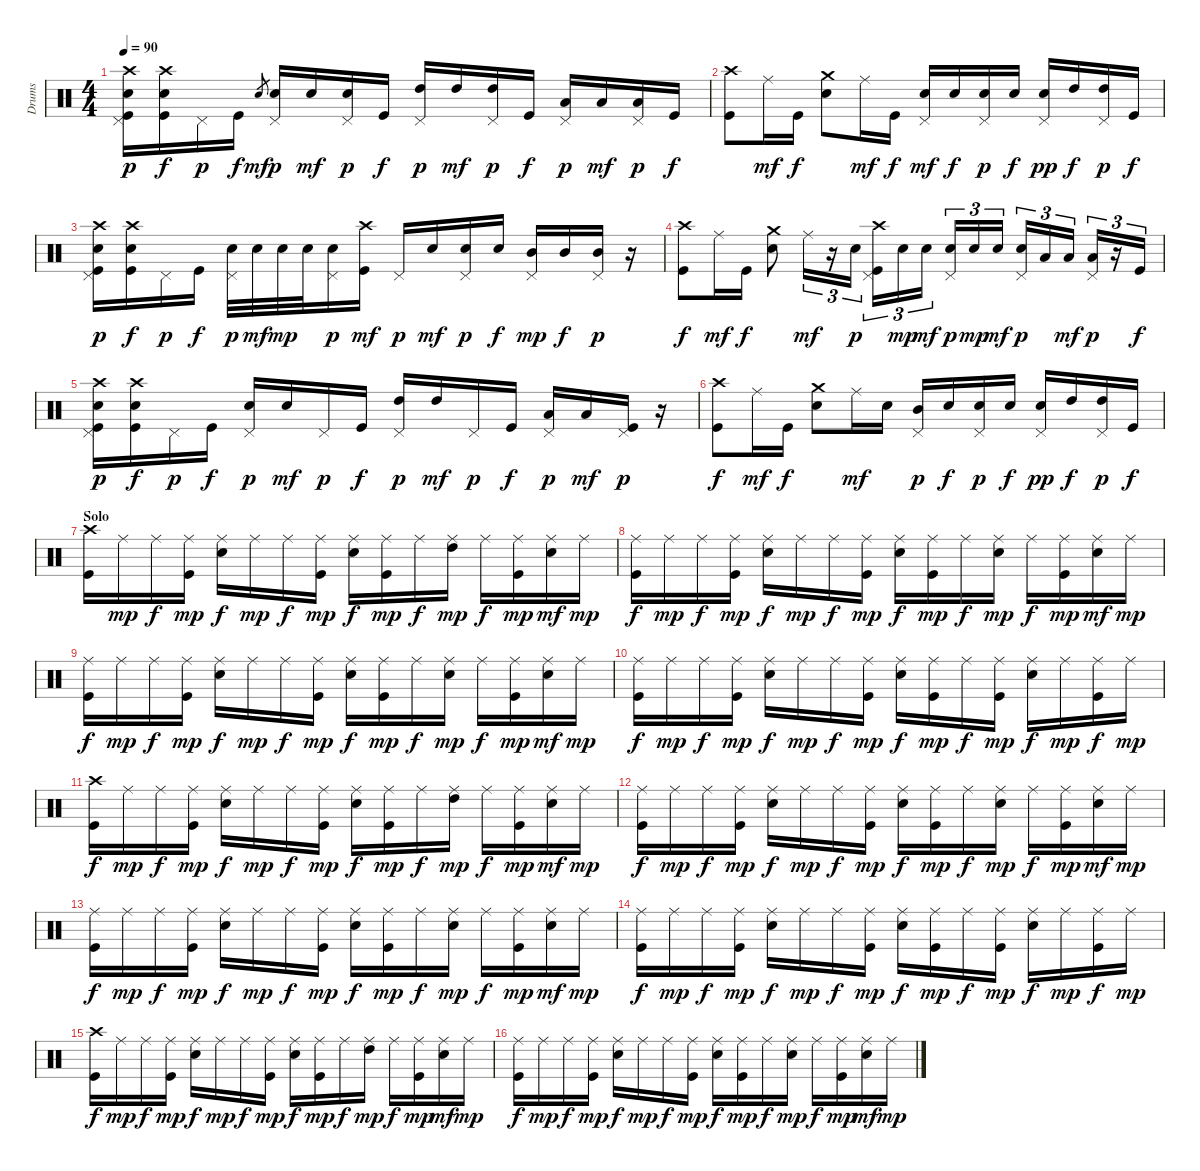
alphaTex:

\track ("Drums" "Drums") {instrument percussion}
\staff {score}
\articulation defaults
\ts (4 4)
\tempo 90
\clef neutral
\ks c
("Crash high (hit)" "Pedal Hi-Hat (hit)" "Snare (hit) 2" "Kick (hit)").16{dy p} ("Crash high (hit)" "Snare (hit) 2" "Kick (hit)").16{dy f} "Pedal Hi-Hat (hit)".16{dy p} "Kick (hit)".16{dy f} "Snare (hit) 2".8{gr dy mf} ("Pedal Hi-Hat (hit)" "Snare (hit) 2").16{dy p} "Snare (hit) 2".16{dy mf} ("Pedal Hi-Hat (hit)" "Snare (hit) 2").16{dy p} "Kick (hit)".16{dy f} ("Pedal Hi-Hat (hit)" "High Tom (hit)").16{dy p} "High Tom (hit)".16{dy mf} ("Pedal Hi-Hat (hit)" "High Tom (hit)").16{dy p} "Kick (hit)".16{dy f} ("Pedal Hi-Hat (hit)" "Low Tom (hit)").16{dy p} "Low Tom (hit)".16{dy mf} ("Pedal Hi-Hat (hit)" "Low Tom (hit)").16{dy p} "Kick (hit)".16{dy f} |
("Crash high (hit)" "Kick (hit)").8 "Ride (middle)".16{dy mf} "Kick (hit)".16{dy f} ("Crash medium (hit)" "Snare (hit) 2").8 "Ride (middle)".16{dy mf} "Kick (hit)".16{dy f} ("Pedal Hi-Hat (hit)" "Snare (hit) 2").16{dy mf} "Snare (hit) 2".16{dy f} ("Pedal Hi-Hat (hit)" "Snare (hit) 2").16{dy p} "Snare (hit) 2".16{dy f} ("Pedal Hi-Hat (hit)" "Snare (hit) 2").16{dy pp} "High Tom (hit)".16{dy f} ("Pedal Hi-Hat (hit)" "High Tom (hit)").16{dy p} "Kick (hit)".16{dy f} |
("Crash high (hit)" "Pedal Hi-Hat (hit)" "Snare (hit) 2" "Kick (hit)").16{dy p} ("Crash high (hit)" "Snare (hit) 2" "Kick (hit)").16{dy f} "Pedal Hi-Hat (hit)".16{dy p} "Kick (hit)".16{dy f} ("Pedal Hi-Hat (hit)" "Snare (hit) 2").32{dy p} "Snare (hit) 2".32{dy mf} "Snare (hit) 2".32{dy mp} "Snare (hit) 2".32 ("Pedal Hi-Hat (hit)" "Snare (hit) 2").16{dy p} ("Crash high (hit)" "Kick (hit)").16{dy mf} "Pedal Hi-Hat (hit)".16{dy p} "Snare (hit) 2".16{dy mf} ("Pedal Hi-Hat (hit)" "Snare (hit) 2").16{dy p} "Snare (hit) 2".16{dy f} ("Pedal Hi-Hat (hit)" "Mid Tom (hit)").16{dy mp} "Mid Tom (hit)".16{dy f} ("Pedal Hi-Hat (hit)" "Mid Tom (hit)").16{dy p} r.16 |
("Crash high (hit)" "Kick (hit)").8{dy f} "Ride (middle)".16{dy mf} "Kick (hit)".16{dy f} ("Crash medium (hit)" "Snare (hit) 2").8 "Ride (middle)".16{tu (3 2) dy mf} r.16{tu (3 2)} "Snare (hit) 2".16{tu (3 2) dy p} ("Crash high (hit)" "Pedal Hi-Hat (hit)" "Kick (hit)").16{tu (3 2)} "Snare (hit) 2".16{tu (3 2) dy mp} "Snare (hit) 2".16{tu (3 2) dy mf} ("Pedal Hi-Hat (hit)" "Snare (hit) 2").16{tu (3 2) dy p} "Snare (hit) 2".16{tu (3 2) dy mp} "Snare (hit) 2".16{tu (3 2) dy mf} ("Pedal Hi-Hat (hit)" "Snare (hit) 2").16{tu (3 2) dy p} "Low Tom (hit)".16{tu (3 2)} "Low Tom (hit)".16{tu (3 2) dy mf} ("Pedal Hi-Hat (hit)" "Low Tom (hit)").16{tu (3 2) dy p} r.16{tu (3 2)} "Kick (hit)".16{tu (3 2) dy f} |
("Crash high (hit)" "Pedal Hi-Hat (hit)" "Snare (hit) 2" "Kick (hit)").16{dy p} ("Crash high (hit)" "Snare (hit) 2" "Kick (hit)").16{dy f} "Pedal Hi-Hat (hit)".16{dy p} "Kick (hit)".16{dy f} ("Pedal Hi-Hat (hit)" "Snare (hit) 2").16{dy p} "Snare (hit) 2".16{dy mf} "Pedal Hi-Hat (hit)".16{dy p} "Kick (hit)".16{dy f} ("Pedal Hi-Hat (hit)" "High Tom (hit)").16{dy p} "High Tom (hit)".16{dy mf} "Pedal Hi-Hat (hit)".16{dy p} "Kick (hit)".16{dy f} ("Pedal Hi-Hat (hit)" "Low Tom (hit)").16{dy p} "Low Tom (hit)".16{dy mf} ("Pedal Hi-Hat (hit)" "Kick (hit)").16{dy p} r.16 |
("Crash high (hit)" "Kick (hit)").8{dy f} "Ride (middle)".16{dy mf} "Kick (hit)".16{dy f} ("Crash medium (hit)" "Snare (hit) 2").8 "Ride (middle)".16{dy mf} "Snare (hit) 2".16 ("Pedal Hi-Hat (hit)" "Mid Tom (hit)").16{dy p} "Snare (hit) 2".16{dy f} ("Pedal Hi-Hat (hit)" "Snare (hit) 2").16{dy p} "Snare (hit) 2".16{dy f} ("Pedal Hi-Hat (hit)" "Snare (hit) 2").16{dy pp} "High Tom (hit)".16{dy f} ("Pedal Hi-Hat (hit)" "High Tom (hit)").16{dy p} "Kick (hit)".16{dy f} |
\section ("" "Solo")
("Crash high (hit)" "Kick (hit)").16 "Ride (middle)".16{dy mp} "Ride (middle)".16{dy f} ("Ride (middle)" "Kick (hit)").16{dy mp} ("Ride (middle)" "Snare (hit) 2").16{dy f} "Ride (middle)".16{dy mp} "Ride (middle)".16{dy f} ("Ride (middle)" "Kick (hit)").16{dy mp} ("Ride (middle)" "Snare (hit) 2").16{dy f} ("Ride (middle)" "Kick (hit)").16{dy mp} "Ride (middle)".16{dy f} ("Ride (middle)" "High Tom (hit)").16{dy mp} "Ride (middle)".16{dy f} ("Ride (middle)" "Kick (hit)").16{dy mp} ("Ride (middle)" "Snare (hit) 2").16{dy mf} "Ride (middle)".16{dy mp} |
("Ride (middle)" "Kick (hit)").16{dy f} "Ride (middle)".16{dy mp} "Ride (middle)".16{dy f} ("Ride (middle)" "Kick (hit)").16{dy mp} ("Ride (middle)" "Snare (hit) 2").16{dy f} "Ride (middle)".16{dy mp} "Ride (middle)".16{dy f} ("Ride (middle)" "Kick (hit)").16{dy mp} ("Ride (middle)" "Snare (hit) 2").16{dy f} ("Ride (middle)" "Kick (hit)").16{dy mp} "Ride (middle)".16{dy f} ("Ride (middle)" "Snare (hit) 2").16{dy mp} "Ride (middle)".16{dy f} ("Ride (middle)" "Kick (hit)").16{dy mp} ("Ride (middle)" "Snare (hit) 2").16{dy mf} "Ride (middle)".16{dy mp} |
("Ride (middle)" "Kick (hit)").16{dy f} "Ride (middle)".16{dy mp} "Ride (middle)".16{dy f} ("Ride (middle)" "Kick (hit)").16{dy mp} ("Ride (middle)" "Snare (hit) 2").16{dy f} "Ride (middle)".16{dy mp} "Ride (middle)".16{dy f} ("Ride (middle)" "Kick (hit)").16{dy mp} ("Ride (middle)" "Snare (hit) 2").16{dy f} ("Ride (middle)" "Kick (hit)").16{dy mp} "Ride (middle)".16{dy f} ("Ride (middle)" "Snare (hit) 2").16{dy mp} "Ride (middle)".16{dy f} ("Ride (middle)" "Kick (hit)").16{dy mp} ("Ride (middle)" "Snare (hit) 2").16{dy mf} "Ride (middle)".16{dy mp} |
("Ride (middle)" "Kick (hit)").16{dy f} "Ride (middle)".16{dy mp} "Ride (middle)".16{dy f} ("Ride (middle)" "Kick (hit)").16{dy mp} ("Ride (middle)" "Snare (hit) 2").16{dy f} "Ride (middle)".16{dy mp} "Ride (middle)".16{dy f} ("Ride (middle)" "Kick (hit)").16{dy mp} ("Ride (middle)" "Snare (hit) 2").16{dy f} ("Ride (middle)" "Kick (hit)").16{dy mp} "Ride (middle)".16{dy f} ("Ride (middle)" "Kick (hit)").16{dy mp} ("Ride (middle)" "Snare (hit) 2").16{dy f} "Ride (middle)".16{dy mp} ("Ride (middle)" "Kick (hit)").16{dy f} "Ride (middle)".16{dy mp} |
("Crash high (hit)" "Kick (hit)").16{dy f} "Ride (middle)".16{dy mp} "Ride (middle)".16{dy f} ("Ride (middle)" "Kick (hit)").16{dy mp} ("Ride (middle)" "Snare (hit) 2").16{dy f} "Ride (middle)".16{dy mp} "Ride (middle)".16{dy f} ("Ride (middle)" "Kick (hit)").16{dy mp} ("Ride (middle)" "Snare (hit) 2").16{dy f} ("Ride (middle)" "Kick (hit)").16{dy mp} "Ride (middle)".16{dy f} ("Ride (middle)" "High Tom (hit)").16{dy mp} "Ride (middle)".16{dy f} ("Ride (middle)" "Kick (hit)").16{dy mp} ("Ride (middle)" "Snare (hit) 2").16{dy mf} "Ride (middle)".16{dy mp} |
("Ride (middle)" "Kick (hit)").16{dy f} "Ride (middle)".16{dy mp} "Ride (middle)".16{dy f} ("Ride (middle)" "Kick (hit)").16{dy mp} ("Ride (middle)" "Snare (hit) 2").16{dy f} "Ride (middle)".16{dy mp} "Ride (middle)".16{dy f} ("Ride (middle)" "Kick (hit)").16{dy mp} ("Ride (middle)" "Snare (hit) 2").16{dy f} ("Ride (middle)" "Kick (hit)").16{dy mp} "Ride (middle)".16{dy f} ("Ride (middle)" "Snare (hit) 2").16{dy mp} "Ride (middle)".16{dy f} ("Ride (middle)" "Kick (hit)").16{dy mp} ("Ride (middle)" "Snare (hit) 2").16{dy mf} "Ride (middle)".16{dy mp} |
("Ride (middle)" "Kick (hit)").16{dy f} "Ride (middle)".16{dy mp} "Ride (middle)".16{dy f} ("Ride (middle)" "Kick (hit)").16{dy mp} ("Ride (middle)" "Snare (hit) 2").16{dy f} "Ride (middle)".16{dy mp} "Ride (middle)".16{dy f} ("Ride (middle)" "Kick (hit)").16{dy mp} ("Ride (middle)" "Snare (hit) 2").16{dy f} ("Ride (middle)" "Kick (hit)").16{dy mp} "Ride (middle)".16{dy f} ("Ride (middle)" "Snare (hit) 2").16{dy mp} "Ride (middle)".16{dy f} ("Ride (middle)" "Kick (hit)").16{dy mp} ("Ride (middle)" "Snare (hit) 2").16{dy mf} "Ride (middle)".16{dy mp} |
("Ride (middle)" "Kick (hit)").16{dy f} "Ride (middle)".16{dy mp} "Ride (middle)".16{dy f} ("Ride (middle)" "Kick (hit)").16{dy mp} ("Ride (middle)" "Snare (hit) 2").16{dy f} "Ride (middle)".16{dy mp} "Ride (middle)".16{dy f} ("Ride (middle)" "Kick (hit)").16{dy mp} ("Ride (middle)" "Snare (hit) 2").16{dy f} ("Ride (middle)" "Kick (hit)").16{dy mp} "Ride (middle)".16{dy f} ("Ride (middle)" "Kick (hit)").16{dy mp} ("Ride (middle)" "Snare (hit) 2").16{dy f} "Ride (middle)".16{dy mp} ("Ride (middle)" "Kick (hit)").16{dy f} "Ride (middle)".16{dy mp} |
("Crash high (hit)" "Kick (hit)").16{dy f} "Ride (middle)".16{dy mp} "Ride (middle)".16{dy f} ("Ride (middle)" "Kick (hit)").16{dy mp} ("Ride (middle)" "Snare (hit) 2").16{dy f} "Ride (middle)".16{dy mp} "Ride (middle)".16{dy f} ("Ride (middle)" "Kick (hit)").16{dy mp} ("Ride (middle)" "Snare (hit) 2").16{dy f} ("Ride (middle)" "Kick (hit)").16{dy mp} "Ride (middle)".16{dy f} ("Ride (middle)" "High Tom (hit)").16{dy mp} "Ride (middle)".16{dy f} ("Ride (middle)" "Kick (hit)").16{dy mp} ("Ride (middle)" "Snare (hit) 2").16{dy mf} "Ride (middle)".16{dy mp} |
("Ride (middle)" "Kick (hit)").16{dy f} "Ride (middle)".16{dy mp} "Ride (middle)".16{dy f} ("Ride (middle)" "Kick (hit)").16{dy mp} ("Ride (middle)" "Snare (hit) 2").16{dy f} "Ride (middle)".16{dy mp} "Ride (middle)".16{dy f} ("Ride (middle)" "Kick (hit)").16{dy mp} ("Ride (middle)" "Snare (hit) 2").16{dy f} ("Ride (middle)" "Kick (hit)").16{dy mp} "Ride (middle)".16{dy f} ("Ride (middle)" "Snare (hit) 2").16{dy mp} "Ride (middle)".16{dy f} ("Ride (middle)" "Kick (hit)").16{dy mp} ("Ride (middle)" "Snare (hit) 2").16{dy mf} "Ride (middle)".16{dy mp}
